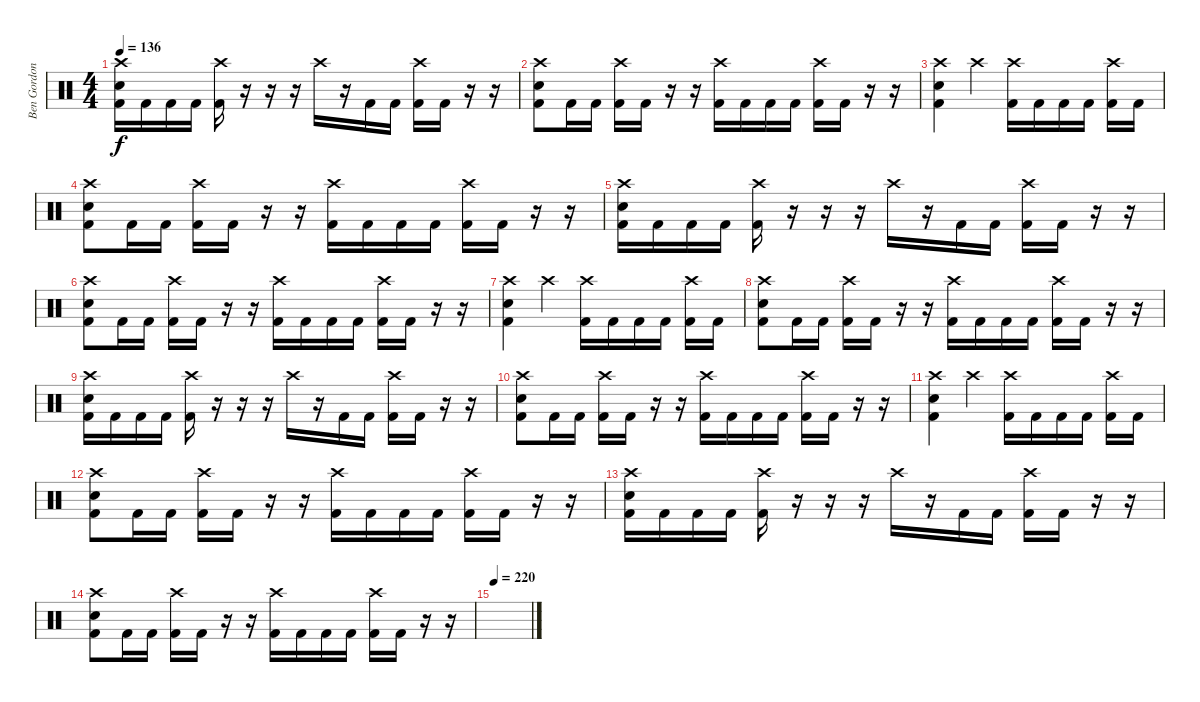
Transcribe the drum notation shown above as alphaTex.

\track ("Ben Gordon" "Ben Gordon") {instrument percussion}
\staff {score}
\articulation defaults
\ts (4 4)
\tempo 136
\clef neutral
\ks c
("Crash high (hit)" "Electric Snare (hit)" "Kick (hit) 2").16{dy f} "Kick (hit) 2".16 "Kick (hit) 2".16 "Kick (hit) 2".16 ("Crash high (hit)" "Kick (hit) 2").16 r.16 r.16 r.16 "Crash high (hit)".16 r.16 "Kick (hit) 2".16 "Kick (hit) 2".16 ("Crash high (hit)" "Kick (hit) 2").16 "Kick (hit) 2".16 r.16 r.16 |
("Crash high (hit)" "Electric Snare (hit)" "Kick (hit) 2").8 "Kick (hit) 2".16 "Kick (hit) 2".16 ("Crash high (hit)" "Kick (hit) 2").16 "Kick (hit) 2".16 r.16 r.16 ("Crash high (hit)" "Kick (hit) 2").16 "Kick (hit) 2".16 "Kick (hit) 2".16 "Kick (hit) 2".16 ("Crash high (hit)" "Kick (hit) 2").16 "Kick (hit) 2".16 r.16 r.16 |
("Crash high (hit)" "Electric Snare (hit)" "Kick (hit) 2").4 "Crash high (hit)".4 ("Crash high (hit)" "Kick (hit) 2").16 "Kick (hit) 2".16 "Kick (hit) 2".16 "Kick (hit) 2".16 ("Crash high (hit)" "Kick (hit) 2").16 "Kick (hit) 2".16 |
("Crash high (hit)" "Electric Snare (hit)" "Kick (hit) 2").8 "Kick (hit) 2".16 "Kick (hit) 2".16 ("Crash high (hit)" "Kick (hit) 2").16 "Kick (hit) 2".16 r.16 r.16 ("Crash high (hit)" "Kick (hit) 2").16 "Kick (hit) 2".16 "Kick (hit) 2".16 "Kick (hit) 2".16 ("Crash high (hit)" "Kick (hit) 2").16 "Kick (hit) 2".16 r.16 r.16 |
("Crash high (hit)" "Electric Snare (hit)" "Kick (hit) 2").16 "Kick (hit) 2".16 "Kick (hit) 2".16 "Kick (hit) 2".16 ("Crash high (hit)" "Kick (hit) 2").16 r.16 r.16 r.16 "Crash high (hit)".16 r.16 "Kick (hit) 2".16 "Kick (hit) 2".16 ("Crash high (hit)" "Kick (hit) 2").16 "Kick (hit) 2".16 r.16 r.16 |
("Crash high (hit)" "Electric Snare (hit)" "Kick (hit) 2").8 "Kick (hit) 2".16 "Kick (hit) 2".16 ("Crash high (hit)" "Kick (hit) 2").16 "Kick (hit) 2".16 r.16 r.16 ("Crash high (hit)" "Kick (hit) 2").16 "Kick (hit) 2".16 "Kick (hit) 2".16 "Kick (hit) 2".16 ("Crash high (hit)" "Kick (hit) 2").16 "Kick (hit) 2".16 r.16 r.16 |
("Crash high (hit)" "Electric Snare (hit)" "Kick (hit) 2").4 "Crash high (hit)".4 ("Crash high (hit)" "Kick (hit) 2").16 "Kick (hit) 2".16 "Kick (hit) 2".16 "Kick (hit) 2".16 ("Crash high (hit)" "Kick (hit) 2").16 "Kick (hit) 2".16 |
("Crash high (hit)" "Electric Snare (hit)" "Kick (hit) 2").8 "Kick (hit) 2".16 "Kick (hit) 2".16 ("Crash high (hit)" "Kick (hit) 2").16 "Kick (hit) 2".16 r.16 r.16 ("Crash high (hit)" "Kick (hit) 2").16 "Kick (hit) 2".16 "Kick (hit) 2".16 "Kick (hit) 2".16 ("Crash high (hit)" "Kick (hit) 2").16 "Kick (hit) 2".16 r.16 r.16 |
("Crash high (hit)" "Electric Snare (hit)" "Kick (hit) 2").16 "Kick (hit) 2".16 "Kick (hit) 2".16 "Kick (hit) 2".16 ("Crash high (hit)" "Kick (hit) 2").16 r.16 r.16 r.16 "Crash high (hit)".16 r.16 "Kick (hit) 2".16 "Kick (hit) 2".16 ("Crash high (hit)" "Kick (hit) 2").16 "Kick (hit) 2".16 r.16 r.16 |
("Crash high (hit)" "Electric Snare (hit)" "Kick (hit) 2").8 "Kick (hit) 2".16 "Kick (hit) 2".16 ("Crash high (hit)" "Kick (hit) 2").16 "Kick (hit) 2".16 r.16 r.16 ("Crash high (hit)" "Kick (hit) 2").16 "Kick (hit) 2".16 "Kick (hit) 2".16 "Kick (hit) 2".16 ("Crash high (hit)" "Kick (hit) 2").16 "Kick (hit) 2".16 r.16 r.16 |
("Crash high (hit)" "Electric Snare (hit)" "Kick (hit) 2").4 "Crash high (hit)".4 ("Crash high (hit)" "Kick (hit) 2").16 "Kick (hit) 2".16 "Kick (hit) 2".16 "Kick (hit) 2".16 ("Crash high (hit)" "Kick (hit) 2").16 "Kick (hit) 2".16 |
("Crash high (hit)" "Electric Snare (hit)" "Kick (hit) 2").8 "Kick (hit) 2".16 "Kick (hit) 2".16 ("Crash high (hit)" "Kick (hit) 2").16 "Kick (hit) 2".16 r.16 r.16 ("Crash high (hit)" "Kick (hit) 2").16 "Kick (hit) 2".16 "Kick (hit) 2".16 "Kick (hit) 2".16 ("Crash high (hit)" "Kick (hit) 2").16 "Kick (hit) 2".16 r.16 r.16 |
("Crash high (hit)" "Electric Snare (hit)" "Kick (hit) 2").16 "Kick (hit) 2".16 "Kick (hit) 2".16 "Kick (hit) 2".16 ("Crash high (hit)" "Kick (hit) 2").16 r.16 r.16 r.16 "Crash high (hit)".16 r.16 "Kick (hit) 2".16 "Kick (hit) 2".16 ("Crash high (hit)" "Kick (hit) 2").16 "Kick (hit) 2".16 r.16 r.16 |
("Crash high (hit)" "Electric Snare (hit)" "Kick (hit) 2").8 "Kick (hit) 2".16 "Kick (hit) 2".16 ("Crash high (hit)" "Kick (hit) 2").16 "Kick (hit) 2".16 r.16 r.16 ("Crash high (hit)" "Kick (hit) 2").16 "Kick (hit) 2".16 "Kick (hit) 2".16 "Kick (hit) 2".16 ("Crash high (hit)" "Kick (hit) 2").16 "Kick (hit) 2".16 r.16 r.16 |
\tempo 220
